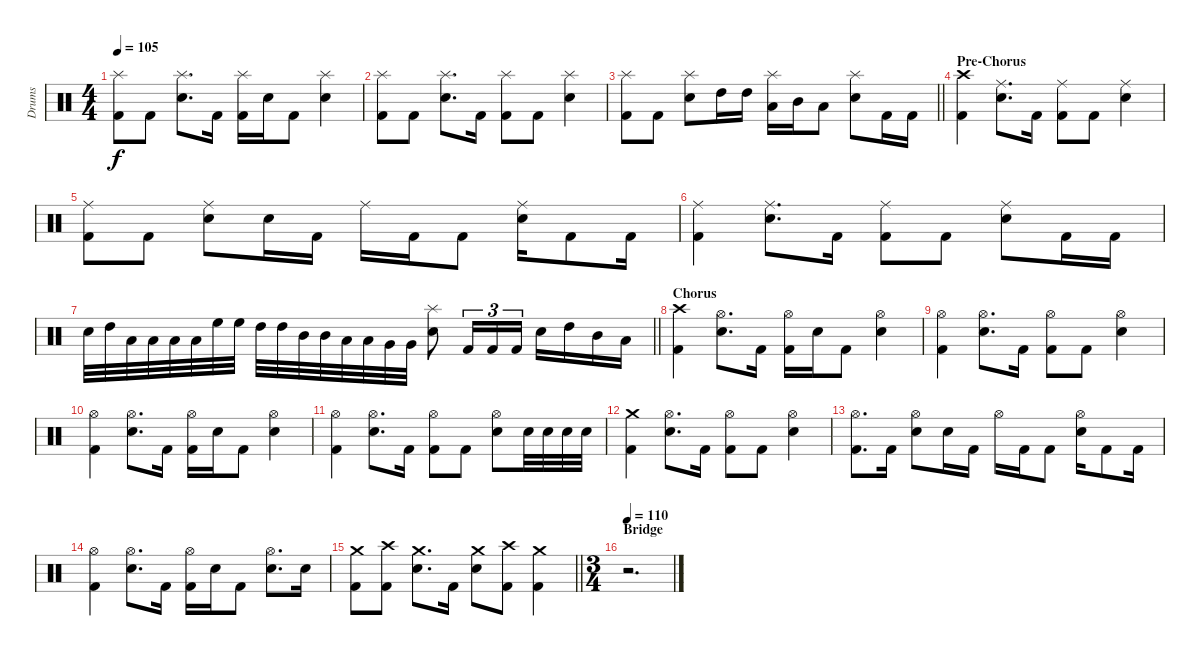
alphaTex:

\track ("Drums" "Drums") {instrument percussion}
\staff {score}
\articulation defaults
\ts (4 4)
\tempo 105
\clef neutral
\ks c
("Splash (hit)" "Kick (hit) 2").8{dy f} "Kick (hit) 2".8 ("Splash (hit)" "Snare (hit) 2").8{d} "Kick (hit) 2".16 ("Splash (hit)" "Kick (hit) 2").16 "Snare (hit) 2".16 "Kick (hit) 2".8 ("Splash (hit)" "Snare (hit) 2").4 |
("Splash (hit)" "Kick (hit) 2").8 "Kick (hit) 2".8 ("Splash (hit)" "Snare (hit) 2").8{d} "Kick (hit) 2".16 ("Splash (hit)" "Kick (hit) 2").8 "Kick (hit) 2".8 ("Splash (hit)" "Snare (hit) 2").4 |
\barLineRight lightlight
("Splash (hit)" "Kick (hit) 2").8 "Kick (hit) 2".8 ("Splash (hit)" "Snare (hit) 2").8 "High Tom (hit)".16 "High Tom (hit)".16 ("Splash (hit)" "Low Tom (hit)").16 "Mid Tom (hit)".16 "Low Tom (hit)".8 ("Splash (hit)" "Snare (hit) 2").8 "Kick (hit) 2".16 "Kick (hit) 2".16 |
\section ("" "Pre-Chorus")
("Crash high (hit)" "Kick (hit) 2").4 ("Ride (middle)" "Snare (hit) 2").8{d} "Kick (hit) 2".16 ("Ride (middle)" "Kick (hit) 2").8 "Kick (hit) 2".8 ("Ride (middle)" "Snare (hit) 2").4 |
("Ride (middle)" "Kick (hit) 2").8 "Kick (hit) 2".8 ("Ride (middle)" "Snare (hit) 2").8 "Snare (hit) 2".16 "Kick (hit) 2".16 "Ride (middle)".16 "Kick (hit) 2".16 "Kick (hit) 2".8 ("Ride (middle)" "Snare (hit) 2").16 "Kick (hit) 2".8 "Kick (hit) 2".16 |
("Ride (middle)" "Kick (hit) 2").4 ("Ride (middle)" "Snare (hit) 2").8{d} "Kick (hit) 2".16 ("Ride (middle)" "Kick (hit) 2").8 "Kick (hit) 2".8 ("Ride (middle)" "Snare (hit) 2").8 "Kick (hit) 2".16 "Kick (hit) 2".16 |
\barLineRight lightlight "Snare (hit) 2".32 "High Tom (hit)".32 "Low Tom (hit)".32 "Low Tom (hit)".32 "Low Tom (hit)".32 "Low Tom (hit)".32 "High Floor Tom (hit)".32 "High Floor Tom (hit)".32 "High Tom (hit)".32 "High Tom (hit)".32 "Mid Tom (hit)".32 "Mid Tom (hit)".32 "Low Tom (hit)".32 "Low Tom (hit)".32 "Very Low Tom (hit)".32 "Very Low Tom (hit)".32
("Splash (hit)" "Snare (hit) 2").8 "Kick (hit) 2".16{tu (3 2)} "Kick (hit) 2".16{tu (3 2)} "Kick (hit) 2".16{tu (3 2)} "Snare (hit) 2".16 "High Tom (hit)".16 "Mid Tom (hit)".16 "Low Tom (hit)".16 |
\section ("" "Chorus")
("Crash high (hit)" "Kick (hit) 2").4 ("Hi-Hat (open)" "Snare (hit) 2").8{d} "Kick (hit) 2".16 ("Hi-Hat (open)" "Kick (hit) 2").16 "Snare (hit) 2".16 "Kick (hit) 2".8 ("Hi-Hat (open)" "Snare (hit) 2").4 |
("Hi-Hat (open)" "Kick (hit) 2").4 ("Hi-Hat (open)" "Snare (hit) 2").8{d} "Kick (hit) 2".16 ("Hi-Hat (open)" "Kick (hit) 2").8 "Kick (hit) 2".8 ("Hi-Hat (open)" "Snare (hit) 2").4 |
("Hi-Hat (open)" "Kick (hit) 2").4 ("Hi-Hat (open)" "Snare (hit) 2").8{d} "Kick (hit) 2".16 ("Hi-Hat (open)" "Kick (hit) 2").16 "Snare (hit) 2".16 "Kick (hit) 2".8 ("Hi-Hat (open)" "Snare (hit) 2").4 |
("Hi-Hat (open)" "Kick (hit) 2").4 ("Hi-Hat (open)" "Snare (hit) 2").8{d} "Kick (hit) 2".16 ("Hi-Hat (open)" "Kick (hit) 2").8 "Kick (hit) 2".8 ("Hi-Hat (open)" "Snare (hit) 2").8 "Snare (hit) 2".32 "Snare (hit) 2".32 "Snare (hit) 2".32 "Snare (hit) 2".32 |
("Crash medium (hit)" "Kick (hit) 2").4 ("Hi-Hat (open)" "Snare (hit) 2").8{d} "Kick (hit) 2".16 ("Hi-Hat (open)" "Kick (hit) 2").8 "Kick (hit) 2".8 ("Hi-Hat (open)" "Snare (hit) 2").4 |
("Hi-Hat (open)" "Kick (hit) 2").8{d} "Kick (hit) 2".16 ("Hi-Hat (open)" "Snare (hit) 2").8 "Snare (hit) 2".16 "Kick (hit) 2".16 "Hi-Hat (open)".16 "Kick (hit) 2".16 "Kick (hit) 2".8 ("Hi-Hat (open)" "Snare (hit) 2").16 "Kick (hit) 2".8 "Kick (hit) 2".16 |
("Hi-Hat (open)" "Kick (hit) 2").4 ("Hi-Hat (open)" "Snare (hit) 2").8{d} "Kick (hit) 2".16 ("Hi-Hat (open)" "Kick (hit) 2").16 "Snare (hit) 2".16 "Kick (hit) 2".8 ("Hi-Hat (open)" "Snare (hit) 2").8{d} "Snare (hit) 2".16 |
\barLineRight lightlight
("Crash medium (hit)" "Kick (hit) 2").8 ("Crash high (hit)" "Kick (hit) 2").8 ("Crash medium (hit)" "Snare (hit) 2").8{d} "Kick (hit) 2".16 ("Crash medium (hit)" "Snare (hit) 2").8 ("Crash high (hit)" "Kick (hit) 2").8 ("Crash medium (hit)" "Kick (hit) 2").4 |
\ts (3 4)
\section ("" "Bridge")
\tempo 110
r.2{d}
